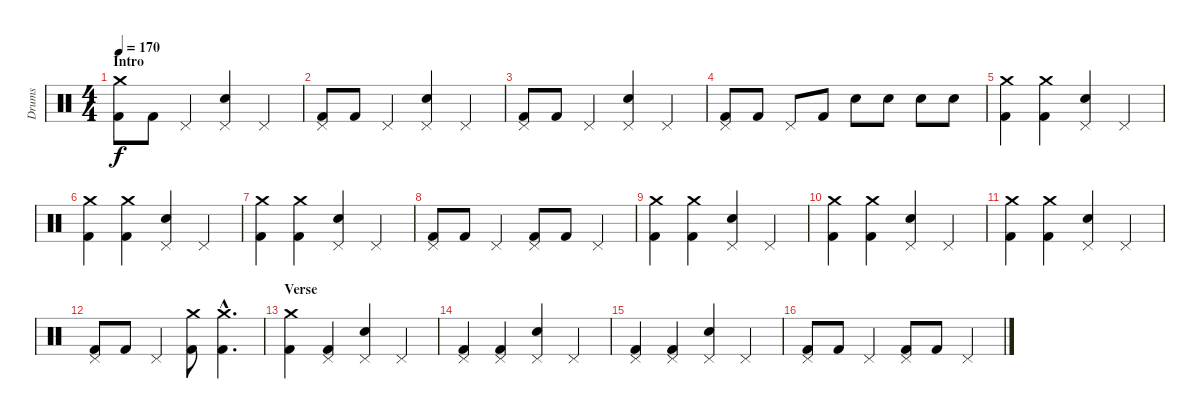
\track ("Drums" "Drums") {instrument percussion}
\staff {score}
\articulation defaults
\ts (4 4)
\section ("" "Intro")
\tempo 170
\clef neutral
\ks c
("Crash medium (hit)" "Kick (hit) 2").8{dy f} "Kick (hit) 2".8 "Pedal Hi-Hat (hit)".4 ("Pedal Hi-Hat (hit)" "Electric Snare (hit)").4 "Pedal Hi-Hat (hit)".4 |
("Pedal Hi-Hat (hit)" "Kick (hit) 2").8 "Kick (hit) 2".8 "Pedal Hi-Hat (hit)".4 ("Pedal Hi-Hat (hit)" "Electric Snare (hit)").4 "Pedal Hi-Hat (hit)".4 |
("Pedal Hi-Hat (hit)" "Kick (hit) 2").8 "Kick (hit) 2".8 "Pedal Hi-Hat (hit)".4 ("Pedal Hi-Hat (hit)" "Electric Snare (hit)").4 "Pedal Hi-Hat (hit)".4 |
("Pedal Hi-Hat (hit)" "Kick (hit) 2").8 "Kick (hit) 2".8 "Pedal Hi-Hat (hit)".8 "Kick (hit) 2".8 "Electric Snare (hit)".8 "Electric Snare (hit)".8 "Electric Snare (hit)".8 "Electric Snare (hit)".8 |
("Crash medium (hit)" "Kick (hit) 2").4 ("Crash medium (hit)" "Kick (hit) 2").4 ("Pedal Hi-Hat (hit)" "Electric Snare (hit)").4 "Pedal Hi-Hat (hit)".4 |
("Crash medium (hit)" "Kick (hit) 2").4 ("Crash medium (hit)" "Kick (hit) 2").4 ("Pedal Hi-Hat (hit)" "Electric Snare (hit)").4 "Pedal Hi-Hat (hit)".4 |
("Crash medium (hit)" "Kick (hit) 2").4 ("Crash medium (hit)" "Kick (hit) 2").4 ("Pedal Hi-Hat (hit)" "Electric Snare (hit)").4 "Pedal Hi-Hat (hit)".4 |
("Pedal Hi-Hat (hit)" "Kick (hit) 2").8 "Kick (hit) 2".8 "Pedal Hi-Hat (hit)".4 ("Pedal Hi-Hat (hit)" "Kick (hit) 2").8 "Kick (hit) 2".8 "Pedal Hi-Hat (hit)".4 |
("Crash medium (hit)" "Kick (hit) 2").4 ("Crash medium (hit)" "Kick (hit) 2").4 ("Pedal Hi-Hat (hit)" "Electric Snare (hit)").4 "Pedal Hi-Hat (hit)".4 |
("Crash medium (hit)" "Kick (hit) 2").4 ("Crash medium (hit)" "Kick (hit) 2").4 ("Pedal Hi-Hat (hit)" "Electric Snare (hit)").4 "Pedal Hi-Hat (hit)".4 |
("Crash medium (hit)" "Kick (hit) 2").4 ("Crash medium (hit)" "Kick (hit) 2").4 ("Pedal Hi-Hat (hit)" "Electric Snare (hit)").4 "Pedal Hi-Hat (hit)".4 |
("Pedal Hi-Hat (hit)" "Kick (hit) 2").8 "Kick (hit) 2".8 "Pedal Hi-Hat (hit)".4 ("Crash medium (hit)" "Kick (hit) 2").8 ("Crash medium (hit)"{hac} "Kick (hit) 2"{hac}).4{d} |
\section ("" "Verse")
("Crash medium (hit)" "Kick (hit) 2").4 ("Pedal Hi-Hat (hit)" "Kick (hit) 2").4 ("Pedal Hi-Hat (hit)" "Electric Snare (hit)").4 "Pedal Hi-Hat (hit)".4 |
("Pedal Hi-Hat (hit)" "Kick (hit) 2").4 ("Pedal Hi-Hat (hit)" "Kick (hit) 2").4 ("Pedal Hi-Hat (hit)" "Electric Snare (hit)").4 "Pedal Hi-Hat (hit)".4 |
("Pedal Hi-Hat (hit)" "Kick (hit) 2").4 ("Pedal Hi-Hat (hit)" "Kick (hit) 2").4 ("Pedal Hi-Hat (hit)" "Electric Snare (hit)").4 "Pedal Hi-Hat (hit)".4 |
("Pedal Hi-Hat (hit)" "Kick (hit) 2").8 "Kick (hit) 2".8 "Pedal Hi-Hat (hit)".4 ("Pedal Hi-Hat (hit)" "Kick (hit) 2").8 "Kick (hit) 2".8 "Pedal Hi-Hat (hit)".4
